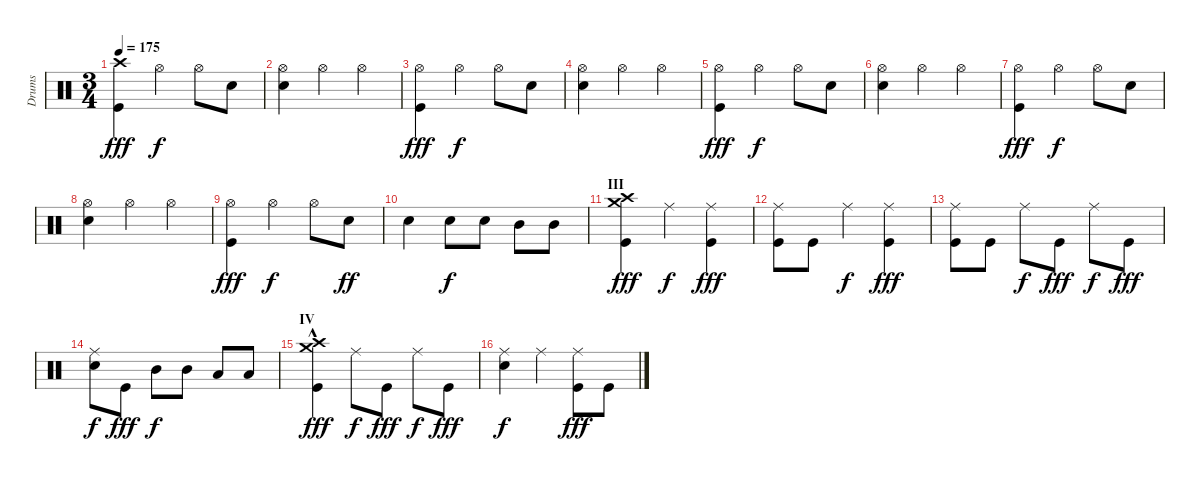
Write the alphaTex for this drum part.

\track ("Drums" "Drums") {instrument percussion}
\staff {score}
\articulation defaults
\ts (3 4)
\tempo 175
\clef neutral
\ks c
("Crash high (hit)" "Kick (hit)").4{dy fff} "Hi-Hat (open)".4{dy f} "Hi-Hat (open)".8 "Snare (hit) 2".8 |
("Hi-Hat (open)" "Snare (hit) 2").4 "Hi-Hat (open)".4 "Hi-Hat (open)".4 |
("Hi-Hat (open)" "Kick (hit)").4{dy fff} "Hi-Hat (open)".4{dy f} "Hi-Hat (open)".8 "Snare (hit) 2".8 |
("Hi-Hat (open)" "Snare (hit) 2").4 "Hi-Hat (open)".4 "Hi-Hat (open)".4 |
("Hi-Hat (open)" "Kick (hit)").4{dy fff} "Hi-Hat (open)".4{dy f} "Hi-Hat (open)".8 "Snare (hit) 2".8 |
("Hi-Hat (open)" "Snare (hit) 2").4 "Hi-Hat (open)".4 "Hi-Hat (open)".4 |
("Hi-Hat (open)" "Kick (hit)").4{dy fff} "Hi-Hat (open)".4{dy f} "Hi-Hat (open)".8 "Snare (hit) 2".8 |
("Hi-Hat (open)" "Snare (hit) 2").4 "Hi-Hat (open)".4 "Hi-Hat (open)".4 |
("Hi-Hat (open)" "Kick (hit)").4{dy fff} "Hi-Hat (open)".4{dy f} "Hi-Hat (open)".8 "Snare (hit) 2".8{dy ff} |
"Snare (hit) 2".4 "Snare (hit) 2".8{dy f} "Snare (hit) 2".8 "Mid Tom (hit)".8 "Mid Tom (hit)".8 |
\section ("" "III")
("Crash high (hit)" "Crash medium (hit)" "Kick (hit)").4{dy fff} "Ride (middle)".4{dy f} ("Ride (middle)" "Kick (hit)").4{dy fff} |
("Ride (middle)" "Kick (hit)").8 "Kick (hit)".8 "Ride (middle)".4{dy f} ("Ride (middle)" "Kick (hit)").4{dy fff} |
("Ride (middle)" "Kick (hit)").8 "Kick (hit)".8 "Ride (middle)".8{dy f} "Kick (hit)".8{dy fff} "Ride (middle)".8{dy f} "Kick (hit)".8{dy fff} |
("Ride (middle)" "Snare (hit) 2").8{dy f} "Kick (hit)".8{dy fff} "Mid Tom (hit)".8{dy f} "Mid Tom (hit)".8 "Low Tom (hit)".8 "Low Tom (hit)".8 |
\section ("" "IV")
("Crash high (hit)"{hac} "Crash medium (hit)" "Kick (hit)").4{dy fff} "Ride (middle)".8{dy f} "Kick (hit)".8{dy fff} "Ride (middle)".8{dy f} "Kick (hit)".8{dy fff} |
("Ride (middle)" "Snare (hit) 2").4{dy f} "Ride (middle)".4 ("Ride (middle)" "Kick (hit)").8{dy fff} "Kick (hit)".8
